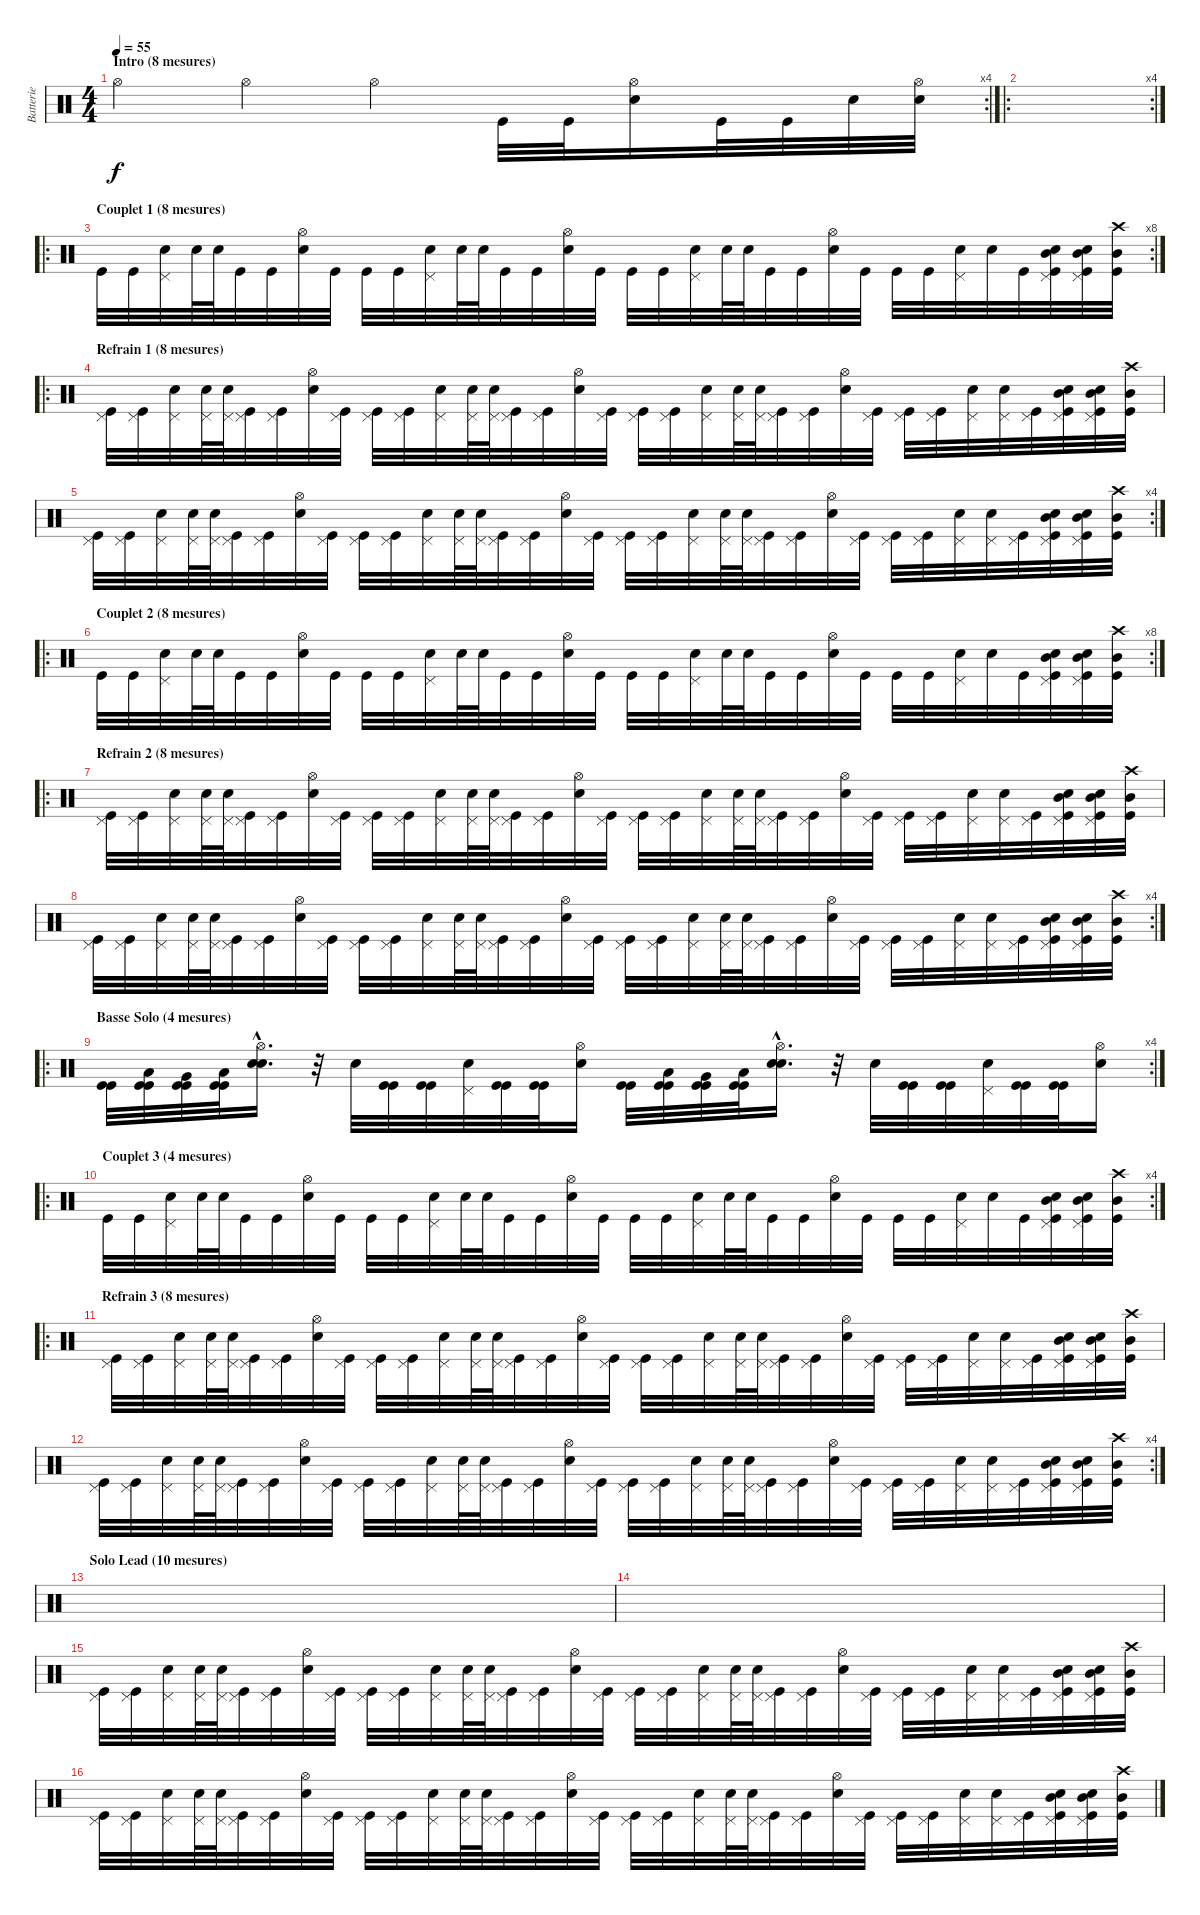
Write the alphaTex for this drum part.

\track ("Batterie" "Batterie") {instrument percussion}
\staff {score}
\articulation defaults
\rc 4
\ts (4 4)
\section ("" "Intro (8 mesures)")
\tempo 55
\clef neutral
\ks c "Hi-Hat (open)".4{dy f} "Hi-Hat (open)".4 "Hi-Hat (open)".4 "Kick (hit)".32 "Kick (hit)".32
("Hi-Hat (open)" "Snare (hit) 2").16 "Kick (hit)".32 "Kick (hit)".32 "Snare (hit) 2".32 ("Hi-Hat (open)" "Snare (hit) 2").32 |
\ro
\rc 4
|
\ro
\rc 8
\section ("" "Couplet 1 (8 mesures)")
"Kick (hit)".32 "Kick (hit)".32 ("Pedal Hi-Hat (hit)" "Snare (hit) 2").32 "Snare (hit) 2".64 "Snare (hit) 2".64 "Kick (hit)".32 "Kick (hit)".32 ("Hi-Hat (open)" "Snare (hit) 2").32 "Kick (hit)".32 "Kick (hit)".32 "Kick (hit)".32 ("Pedal Hi-Hat (hit)" "Snare (hit) 2").32 "Snare (hit) 2".64 "Snare (hit) 2".64 "Kick (hit)".32 "Kick (hit)".32 ("Hi-Hat (open)" "Snare (hit) 2").32 "Kick (hit)".32 "Kick (hit)".32 "Kick (hit)".32 ("Pedal Hi-Hat (hit)" "Snare (hit) 2").32 "Snare (hit) 2".64 "Snare (hit) 2".64 "Kick (hit)".32 "Kick (hit)".32 ("Hi-Hat (open)" "Snare (hit) 2").32 "Kick (hit)".32 "Kick (hit)".32 "Kick (hit)".32 ("Pedal Hi-Hat (hit)" "Snare (hit) 2").32 "Snare (hit) 2".32 "Kick (hit)".32 ("Pedal Hi-Hat (hit)" "Mid Tom (hit)" "Snare (hit) 2" "Kick (hit)").32 ("Pedal Hi-Hat (hit)" "Mid Tom (hit)" "Snare (hit) 2" "Kick (hit)").32 ("Crash high (hit)" "Mid Tom (hit)" "Kick (hit)").32 |
\ro
\section ("" "Refrain 1 (8 mesures)")
("Pedal Hi-Hat (hit)" "Kick (hit)").32 ("Pedal Hi-Hat (hit)" "Kick (hit)").32 ("Pedal Hi-Hat (hit)" "Snare (hit) 2").32 ("Pedal Hi-Hat (hit)" "Snare (hit) 2").64 ("Pedal Hi-Hat (hit)" "Snare (hit) 2").64 ("Pedal Hi-Hat (hit)" "Kick (hit)").32 ("Pedal Hi-Hat (hit)" "Kick (hit)").32 ("Hi-Hat (open)" "Snare (hit) 2").32 ("Pedal Hi-Hat (hit)" "Kick (hit)").32 ("Pedal Hi-Hat (hit)" "Kick (hit)").32 ("Pedal Hi-Hat (hit)" "Kick (hit)").32 ("Pedal Hi-Hat (hit)" "Snare (hit) 2").32 ("Pedal Hi-Hat (hit)" "Snare (hit) 2").64 ("Pedal Hi-Hat (hit)" "Snare (hit) 2").64 ("Pedal Hi-Hat (hit)" "Kick (hit)").32 ("Pedal Hi-Hat (hit)" "Kick (hit)").32 ("Hi-Hat (open)" "Snare (hit) 2").32 ("Pedal Hi-Hat (hit)" "Kick (hit)").32 ("Pedal Hi-Hat (hit)" "Kick (hit)").32 ("Pedal Hi-Hat (hit)" "Kick (hit)").32 ("Pedal Hi-Hat (hit)" "Snare (hit) 2").32 ("Pedal Hi-Hat (hit)" "Snare (hit) 2").64 ("Pedal Hi-Hat (hit)" "Snare (hit) 2").64 ("Pedal Hi-Hat (hit)" "Kick (hit)").32 ("Pedal Hi-Hat (hit)" "Kick (hit)").32 ("Hi-Hat (open)" "Snare (hit) 2").32 ("Pedal Hi-Hat (hit)" "Kick (hit)").32 ("Pedal Hi-Hat (hit)" "Kick (hit)").32 ("Pedal Hi-Hat (hit)" "Kick (hit)").32 ("Pedal Hi-Hat (hit)" "Snare (hit) 2").32 ("Pedal Hi-Hat (hit)" "Snare (hit) 2").32 ("Pedal Hi-Hat (hit)" "Kick (hit)").32 ("Pedal Hi-Hat (hit)" "Mid Tom (hit)" "Snare (hit) 2" "Kick (hit)").32 ("Pedal Hi-Hat (hit)" "Mid Tom (hit)" "Snare (hit) 2" "Kick (hit)").32 ("Crash high (hit)" "Mid Tom (hit)" "Kick (hit)").32 |
\rc 4
("Pedal Hi-Hat (hit)" "Kick (hit)").32 ("Pedal Hi-Hat (hit)" "Kick (hit)").32 ("Pedal Hi-Hat (hit)" "Snare (hit) 2").32 ("Pedal Hi-Hat (hit)" "Snare (hit) 2").64 ("Pedal Hi-Hat (hit)" "Snare (hit) 2").64 ("Pedal Hi-Hat (hit)" "Kick (hit)").32 ("Pedal Hi-Hat (hit)" "Kick (hit)").32 ("Hi-Hat (open)" "Snare (hit) 2").32 ("Pedal Hi-Hat (hit)" "Kick (hit)").32 ("Pedal Hi-Hat (hit)" "Kick (hit)").32 ("Pedal Hi-Hat (hit)" "Kick (hit)").32 ("Pedal Hi-Hat (hit)" "Snare (hit) 2").32 ("Pedal Hi-Hat (hit)" "Snare (hit) 2").64 ("Pedal Hi-Hat (hit)" "Snare (hit) 2").64 ("Pedal Hi-Hat (hit)" "Kick (hit)").32 ("Pedal Hi-Hat (hit)" "Kick (hit)").32 ("Hi-Hat (open)" "Snare (hit) 2").32 ("Pedal Hi-Hat (hit)" "Kick (hit)").32 ("Pedal Hi-Hat (hit)" "Kick (hit)").32 ("Pedal Hi-Hat (hit)" "Kick (hit)").32 ("Pedal Hi-Hat (hit)" "Snare (hit) 2").32 ("Pedal Hi-Hat (hit)" "Snare (hit) 2").64 ("Pedal Hi-Hat (hit)" "Snare (hit) 2").64 ("Pedal Hi-Hat (hit)" "Kick (hit)").32 ("Pedal Hi-Hat (hit)" "Kick (hit)").32 ("Hi-Hat (open)" "Snare (hit) 2").32 ("Pedal Hi-Hat (hit)" "Kick (hit)").32 ("Pedal Hi-Hat (hit)" "Kick (hit)").32 ("Pedal Hi-Hat (hit)" "Kick (hit)").32 ("Pedal Hi-Hat (hit)" "Snare (hit) 2").32 ("Pedal Hi-Hat (hit)" "Snare (hit) 2").32 ("Pedal Hi-Hat (hit)" "Kick (hit)").32 ("Pedal Hi-Hat (hit)" "Mid Tom (hit)" "Snare (hit) 2" "Kick (hit)").32 ("Pedal Hi-Hat (hit)" "Mid Tom (hit)" "Snare (hit) 2" "Kick (hit)").32 ("Crash high (hit)" "Mid Tom (hit)" "Kick (hit)").32 |
\ro
\rc 8
\section ("" "Couplet 2 (8 mesures)")
"Kick (hit)".32 "Kick (hit)".32 ("Pedal Hi-Hat (hit)" "Snare (hit) 2").32 "Snare (hit) 2".64 "Snare (hit) 2".64 "Kick (hit)".32 "Kick (hit)".32 ("Hi-Hat (open)" "Snare (hit) 2").32 "Kick (hit)".32 "Kick (hit)".32 "Kick (hit)".32 ("Pedal Hi-Hat (hit)" "Snare (hit) 2").32 "Snare (hit) 2".64 "Snare (hit) 2".64 "Kick (hit)".32 "Kick (hit)".32 ("Hi-Hat (open)" "Snare (hit) 2").32 "Kick (hit)".32 "Kick (hit)".32 "Kick (hit)".32 ("Pedal Hi-Hat (hit)" "Snare (hit) 2").32 "Snare (hit) 2".64 "Snare (hit) 2".64 "Kick (hit)".32 "Kick (hit)".32 ("Hi-Hat (open)" "Snare (hit) 2").32 "Kick (hit)".32 "Kick (hit)".32 "Kick (hit)".32 ("Pedal Hi-Hat (hit)" "Snare (hit) 2").32 "Snare (hit) 2".32 "Kick (hit)".32 ("Pedal Hi-Hat (hit)" "Mid Tom (hit)" "Snare (hit) 2" "Kick (hit)").32 ("Pedal Hi-Hat (hit)" "Mid Tom (hit)" "Snare (hit) 2" "Kick (hit)").32 ("Crash high (hit)" "Mid Tom (hit)" "Kick (hit)").32 |
\ro
\section ("" "Refrain 2 (8 mesures)")
("Pedal Hi-Hat (hit)" "Kick (hit)").32 ("Pedal Hi-Hat (hit)" "Kick (hit)").32 ("Pedal Hi-Hat (hit)" "Snare (hit) 2").32 ("Pedal Hi-Hat (hit)" "Snare (hit) 2").64 ("Pedal Hi-Hat (hit)" "Snare (hit) 2").64 ("Pedal Hi-Hat (hit)" "Kick (hit)").32 ("Pedal Hi-Hat (hit)" "Kick (hit)").32 ("Hi-Hat (open)" "Snare (hit) 2").32 ("Pedal Hi-Hat (hit)" "Kick (hit)").32 ("Pedal Hi-Hat (hit)" "Kick (hit)").32 ("Pedal Hi-Hat (hit)" "Kick (hit)").32 ("Pedal Hi-Hat (hit)" "Snare (hit) 2").32 ("Pedal Hi-Hat (hit)" "Snare (hit) 2").64 ("Pedal Hi-Hat (hit)" "Snare (hit) 2").64 ("Pedal Hi-Hat (hit)" "Kick (hit)").32 ("Pedal Hi-Hat (hit)" "Kick (hit)").32 ("Hi-Hat (open)" "Snare (hit) 2").32 ("Pedal Hi-Hat (hit)" "Kick (hit)").32 ("Pedal Hi-Hat (hit)" "Kick (hit)").32 ("Pedal Hi-Hat (hit)" "Kick (hit)").32 ("Pedal Hi-Hat (hit)" "Snare (hit) 2").32 ("Pedal Hi-Hat (hit)" "Snare (hit) 2").64 ("Pedal Hi-Hat (hit)" "Snare (hit) 2").64 ("Pedal Hi-Hat (hit)" "Kick (hit)").32 ("Pedal Hi-Hat (hit)" "Kick (hit)").32 ("Hi-Hat (open)" "Snare (hit) 2").32 ("Pedal Hi-Hat (hit)" "Kick (hit)").32 ("Pedal Hi-Hat (hit)" "Kick (hit)").32 ("Pedal Hi-Hat (hit)" "Kick (hit)").32 ("Pedal Hi-Hat (hit)" "Snare (hit) 2").32 ("Pedal Hi-Hat (hit)" "Snare (hit) 2").32 ("Pedal Hi-Hat (hit)" "Kick (hit)").32 ("Pedal Hi-Hat (hit)" "Mid Tom (hit)" "Snare (hit) 2" "Kick (hit)").32 ("Pedal Hi-Hat (hit)" "Mid Tom (hit)" "Snare (hit) 2" "Kick (hit)").32 ("Crash high (hit)" "Mid Tom (hit)" "Kick (hit)").32 |
\rc 4
("Pedal Hi-Hat (hit)" "Kick (hit)").32 ("Pedal Hi-Hat (hit)" "Kick (hit)").32 ("Pedal Hi-Hat (hit)" "Snare (hit) 2").32 ("Pedal Hi-Hat (hit)" "Snare (hit) 2").64 ("Pedal Hi-Hat (hit)" "Snare (hit) 2").64 ("Pedal Hi-Hat (hit)" "Kick (hit)").32 ("Pedal Hi-Hat (hit)" "Kick (hit)").32 ("Hi-Hat (open)" "Snare (hit) 2").32 ("Pedal Hi-Hat (hit)" "Kick (hit)").32 ("Pedal Hi-Hat (hit)" "Kick (hit)").32 ("Pedal Hi-Hat (hit)" "Kick (hit)").32 ("Pedal Hi-Hat (hit)" "Snare (hit) 2").32 ("Pedal Hi-Hat (hit)" "Snare (hit) 2").64 ("Pedal Hi-Hat (hit)" "Snare (hit) 2").64 ("Pedal Hi-Hat (hit)" "Kick (hit)").32 ("Pedal Hi-Hat (hit)" "Kick (hit)").32 ("Hi-Hat (open)" "Snare (hit) 2").32 ("Pedal Hi-Hat (hit)" "Kick (hit)").32 ("Pedal Hi-Hat (hit)" "Kick (hit)").32 ("Pedal Hi-Hat (hit)" "Kick (hit)").32 ("Pedal Hi-Hat (hit)" "Snare (hit) 2").32 ("Pedal Hi-Hat (hit)" "Snare (hit) 2").64 ("Pedal Hi-Hat (hit)" "Snare (hit) 2").64 ("Pedal Hi-Hat (hit)" "Kick (hit)").32 ("Pedal Hi-Hat (hit)" "Kick (hit)").32 ("Hi-Hat (open)" "Snare (hit) 2").32 ("Pedal Hi-Hat (hit)" "Kick (hit)").32 ("Pedal Hi-Hat (hit)" "Kick (hit)").32 ("Pedal Hi-Hat (hit)" "Kick (hit)").32 ("Pedal Hi-Hat (hit)" "Snare (hit) 2").32 ("Pedal Hi-Hat (hit)" "Snare (hit) 2").32 ("Pedal Hi-Hat (hit)" "Kick (hit)").32 ("Pedal Hi-Hat (hit)" "Mid Tom (hit)" "Snare (hit) 2" "Kick (hit)").32 ("Pedal Hi-Hat (hit)" "Mid Tom (hit)" "Snare (hit) 2" "Kick (hit)").32 ("Crash high (hit)" "Mid Tom (hit)" "Kick (hit)").32 |
\ro
\rc 4
\section ("" "Basse Solo (4 mesures)")
("Kick (hit)" "Kick (hit)").32{volume 8} ("Low Tom (hit)" "Kick (hit)" "Kick (hit)").32 ("Very Low Tom (hit)" "Kick (hit)" "Kick (hit)").32 ("Low Tom (hit)" "Kick (hit)" "Kick (hit)").32 ("Hi-Hat (open)"{hac} "Snare (hit) 2"{hac} "Snare (hit) 2"{hac}).16{d} r.32 "Snare (hit) 2".32 ("Kick (hit)" "Kick (hit)").32 ("Kick (hit)" "Kick (hit)").32 ("Pedal Hi-Hat (hit)" "Snare (hit) 2").32 ("Kick (hit)" "Kick (hit)").32 ("Kick (hit)" "Kick (hit)").32 ("Hi-Hat (open)" "Snare (hit) 2").16 ("Kick (hit)" "Kick (hit)").32 ("Low Tom (hit)" "Kick (hit)" "Kick (hit)").32 ("Very Low Tom (hit)" "Kick (hit)" "Kick (hit)").32 ("Low Tom (hit)" "Kick (hit)" "Kick (hit)").32 ("Hi-Hat (open)"{hac} "Snare (hit) 2"{hac} "Snare (hit) 2"{hac}).16{d} r.32 "Snare (hit) 2".32 ("Kick (hit)" "Kick (hit)").32 ("Kick (hit)" "Kick (hit)").32 ("Pedal Hi-Hat (hit)" "Snare (hit) 2").32 ("Kick (hit)" "Kick (hit)").32 ("Kick (hit)" "Kick (hit)").32 ("Hi-Hat (open)" "Snare (hit) 2").16 |
\ro
\rc 4
\section ("" "Couplet 3 (4 mesures)")
"Kick (hit)".32{volume 13} "Kick (hit)".32 ("Pedal Hi-Hat (hit)" "Snare (hit) 2").32 "Snare (hit) 2".64 "Snare (hit) 2".64 "Kick (hit)".32 "Kick (hit)".32 ("Hi-Hat (open)" "Snare (hit) 2").32 "Kick (hit)".32 "Kick (hit)".32 "Kick (hit)".32 ("Pedal Hi-Hat (hit)" "Snare (hit) 2").32 "Snare (hit) 2".64 "Snare (hit) 2".64 "Kick (hit)".32 "Kick (hit)".32 ("Hi-Hat (open)" "Snare (hit) 2").32 "Kick (hit)".32 "Kick (hit)".32 "Kick (hit)".32 ("Pedal Hi-Hat (hit)" "Snare (hit) 2").32 "Snare (hit) 2".64 "Snare (hit) 2".64 "Kick (hit)".32 "Kick (hit)".32 ("Hi-Hat (open)" "Snare (hit) 2").32 "Kick (hit)".32 "Kick (hit)".32 "Kick (hit)".32 ("Pedal Hi-Hat (hit)" "Snare (hit) 2").32 "Snare (hit) 2".32 "Kick (hit)".32 ("Pedal Hi-Hat (hit)" "Mid Tom (hit)" "Snare (hit) 2" "Kick (hit)").32 ("Pedal Hi-Hat (hit)" "Mid Tom (hit)" "Snare (hit) 2" "Kick (hit)").32 ("Crash high (hit)" "Mid Tom (hit)" "Kick (hit)").32 |
\ro
\section ("" "Refrain 3 (8 mesures)")
("Pedal Hi-Hat (hit)" "Kick (hit)").32 ("Pedal Hi-Hat (hit)" "Kick (hit)").32 ("Pedal Hi-Hat (hit)" "Snare (hit) 2").32 ("Pedal Hi-Hat (hit)" "Snare (hit) 2").64 ("Pedal Hi-Hat (hit)" "Snare (hit) 2").64 ("Pedal Hi-Hat (hit)" "Kick (hit)").32 ("Pedal Hi-Hat (hit)" "Kick (hit)").32 ("Hi-Hat (open)" "Snare (hit) 2").32 ("Pedal Hi-Hat (hit)" "Kick (hit)").32 ("Pedal Hi-Hat (hit)" "Kick (hit)").32 ("Pedal Hi-Hat (hit)" "Kick (hit)").32 ("Pedal Hi-Hat (hit)" "Snare (hit) 2").32 ("Pedal Hi-Hat (hit)" "Snare (hit) 2").64 ("Pedal Hi-Hat (hit)" "Snare (hit) 2").64 ("Pedal Hi-Hat (hit)" "Kick (hit)").32 ("Pedal Hi-Hat (hit)" "Kick (hit)").32 ("Hi-Hat (open)" "Snare (hit) 2").32 ("Pedal Hi-Hat (hit)" "Kick (hit)").32 ("Pedal Hi-Hat (hit)" "Kick (hit)").32 ("Pedal Hi-Hat (hit)" "Kick (hit)").32 ("Pedal Hi-Hat (hit)" "Snare (hit) 2").32 ("Pedal Hi-Hat (hit)" "Snare (hit) 2").64 ("Pedal Hi-Hat (hit)" "Snare (hit) 2").64 ("Pedal Hi-Hat (hit)" "Kick (hit)").32 ("Pedal Hi-Hat (hit)" "Kick (hit)").32 ("Hi-Hat (open)" "Snare (hit) 2").32 ("Pedal Hi-Hat (hit)" "Kick (hit)").32 ("Pedal Hi-Hat (hit)" "Kick (hit)").32 ("Pedal Hi-Hat (hit)" "Kick (hit)").32 ("Pedal Hi-Hat (hit)" "Snare (hit) 2").32 ("Pedal Hi-Hat (hit)" "Snare (hit) 2").32 ("Pedal Hi-Hat (hit)" "Kick (hit)").32 ("Pedal Hi-Hat (hit)" "Mid Tom (hit)" "Snare (hit) 2" "Kick (hit)").32 ("Pedal Hi-Hat (hit)" "Mid Tom (hit)" "Snare (hit) 2" "Kick (hit)").32 ("Crash high (hit)" "Mid Tom (hit)" "Kick (hit)").32 |
\rc 4
("Pedal Hi-Hat (hit)" "Kick (hit)").32 ("Pedal Hi-Hat (hit)" "Kick (hit)").32 ("Pedal Hi-Hat (hit)" "Snare (hit) 2").32 ("Pedal Hi-Hat (hit)" "Snare (hit) 2").64 ("Pedal Hi-Hat (hit)" "Snare (hit) 2").64 ("Pedal Hi-Hat (hit)" "Kick (hit)").32 ("Pedal Hi-Hat (hit)" "Kick (hit)").32 ("Hi-Hat (open)" "Snare (hit) 2").32 ("Pedal Hi-Hat (hit)" "Kick (hit)").32 ("Pedal Hi-Hat (hit)" "Kick (hit)").32 ("Pedal Hi-Hat (hit)" "Kick (hit)").32 ("Pedal Hi-Hat (hit)" "Snare (hit) 2").32 ("Pedal Hi-Hat (hit)" "Snare (hit) 2").64 ("Pedal Hi-Hat (hit)" "Snare (hit) 2").64 ("Pedal Hi-Hat (hit)" "Kick (hit)").32 ("Pedal Hi-Hat (hit)" "Kick (hit)").32 ("Hi-Hat (open)" "Snare (hit) 2").32 ("Pedal Hi-Hat (hit)" "Kick (hit)").32 ("Pedal Hi-Hat (hit)" "Kick (hit)").32 ("Pedal Hi-Hat (hit)" "Kick (hit)").32 ("Pedal Hi-Hat (hit)" "Snare (hit) 2").32 ("Pedal Hi-Hat (hit)" "Snare (hit) 2").64 ("Pedal Hi-Hat (hit)" "Snare (hit) 2").64 ("Pedal Hi-Hat (hit)" "Kick (hit)").32 ("Pedal Hi-Hat (hit)" "Kick (hit)").32 ("Hi-Hat (open)" "Snare (hit) 2").32 ("Pedal Hi-Hat (hit)" "Kick (hit)").32 ("Pedal Hi-Hat (hit)" "Kick (hit)").32 ("Pedal Hi-Hat (hit)" "Kick (hit)").32 ("Pedal Hi-Hat (hit)" "Snare (hit) 2").32 ("Pedal Hi-Hat (hit)" "Snare (hit) 2").32 ("Pedal Hi-Hat (hit)" "Kick (hit)").32 ("Pedal Hi-Hat (hit)" "Mid Tom (hit)" "Snare (hit) 2" "Kick (hit)").32 ("Pedal Hi-Hat (hit)" "Mid Tom (hit)" "Snare (hit) 2" "Kick (hit)").32 ("Crash high (hit)" "Mid Tom (hit)" "Kick (hit)").32 |
\section ("" "Solo Lead (10 mesures)")
|
|
("Pedal Hi-Hat (hit)" "Kick (hit)").32 ("Pedal Hi-Hat (hit)" "Kick (hit)").32 ("Pedal Hi-Hat (hit)" "Snare (hit) 2").32 ("Pedal Hi-Hat (hit)" "Snare (hit) 2").64 ("Pedal Hi-Hat (hit)" "Snare (hit) 2").64 ("Pedal Hi-Hat (hit)" "Kick (hit)").32 ("Pedal Hi-Hat (hit)" "Kick (hit)").32 ("Hi-Hat (open)" "Snare (hit) 2").32 ("Pedal Hi-Hat (hit)" "Kick (hit)").32 ("Pedal Hi-Hat (hit)" "Kick (hit)").32 ("Pedal Hi-Hat (hit)" "Kick (hit)").32 ("Pedal Hi-Hat (hit)" "Snare (hit) 2").32 ("Pedal Hi-Hat (hit)" "Snare (hit) 2").64 ("Pedal Hi-Hat (hit)" "Snare (hit) 2").64 ("Pedal Hi-Hat (hit)" "Kick (hit)").32 ("Pedal Hi-Hat (hit)" "Kick (hit)").32 ("Hi-Hat (open)" "Snare (hit) 2").32 ("Pedal Hi-Hat (hit)" "Kick (hit)").32 ("Pedal Hi-Hat (hit)" "Kick (hit)").32 ("Pedal Hi-Hat (hit)" "Kick (hit)").32 ("Pedal Hi-Hat (hit)" "Snare (hit) 2").32 ("Pedal Hi-Hat (hit)" "Snare (hit) 2").64 ("Pedal Hi-Hat (hit)" "Snare (hit) 2").64 ("Pedal Hi-Hat (hit)" "Kick (hit)").32 ("Pedal Hi-Hat (hit)" "Kick (hit)").32 ("Hi-Hat (open)" "Snare (hit) 2").32 ("Pedal Hi-Hat (hit)" "Kick (hit)").32 ("Pedal Hi-Hat (hit)" "Kick (hit)").32 ("Pedal Hi-Hat (hit)" "Kick (hit)").32 ("Pedal Hi-Hat (hit)" "Snare (hit) 2").32 ("Pedal Hi-Hat (hit)" "Snare (hit) 2").32 ("Pedal Hi-Hat (hit)" "Kick (hit)").32 ("Pedal Hi-Hat (hit)" "Mid Tom (hit)" "Snare (hit) 2" "Kick (hit)").32 ("Pedal Hi-Hat (hit)" "Mid Tom (hit)" "Snare (hit) 2" "Kick (hit)").32 ("Crash high (hit)" "Mid Tom (hit)" "Kick (hit)").32 |
("Pedal Hi-Hat (hit)" "Kick (hit)").32 ("Pedal Hi-Hat (hit)" "Kick (hit)").32 ("Pedal Hi-Hat (hit)" "Snare (hit) 2").32 ("Pedal Hi-Hat (hit)" "Snare (hit) 2").64 ("Pedal Hi-Hat (hit)" "Snare (hit) 2").64 ("Pedal Hi-Hat (hit)" "Kick (hit)").32 ("Pedal Hi-Hat (hit)" "Kick (hit)").32 ("Hi-Hat (open)" "Snare (hit) 2").32 ("Pedal Hi-Hat (hit)" "Kick (hit)").32 ("Pedal Hi-Hat (hit)" "Kick (hit)").32 ("Pedal Hi-Hat (hit)" "Kick (hit)").32 ("Pedal Hi-Hat (hit)" "Snare (hit) 2").32 ("Pedal Hi-Hat (hit)" "Snare (hit) 2").64 ("Pedal Hi-Hat (hit)" "Snare (hit) 2").64 ("Pedal Hi-Hat (hit)" "Kick (hit)").32 ("Pedal Hi-Hat (hit)" "Kick (hit)").32 ("Hi-Hat (open)" "Snare (hit) 2").32 ("Pedal Hi-Hat (hit)" "Kick (hit)").32 ("Pedal Hi-Hat (hit)" "Kick (hit)").32 ("Pedal Hi-Hat (hit)" "Kick (hit)").32 ("Pedal Hi-Hat (hit)" "Snare (hit) 2").32 ("Pedal Hi-Hat (hit)" "Snare (hit) 2").64 ("Pedal Hi-Hat (hit)" "Snare (hit) 2").64 ("Pedal Hi-Hat (hit)" "Kick (hit)").32 ("Pedal Hi-Hat (hit)" "Kick (hit)").32 ("Hi-Hat (open)" "Snare (hit) 2").32 ("Pedal Hi-Hat (hit)" "Kick (hit)").32 ("Pedal Hi-Hat (hit)" "Kick (hit)").32 ("Pedal Hi-Hat (hit)" "Kick (hit)").32 ("Pedal Hi-Hat (hit)" "Snare (hit) 2").32 ("Pedal Hi-Hat (hit)" "Snare (hit) 2").32 ("Pedal Hi-Hat (hit)" "Kick (hit)").32 ("Pedal Hi-Hat (hit)" "Mid Tom (hit)" "Snare (hit) 2" "Kick (hit)").32 ("Pedal Hi-Hat (hit)" "Mid Tom (hit)" "Snare (hit) 2" "Kick (hit)").32 ("Crash high (hit)" "Mid Tom (hit)" "Kick (hit)").32
